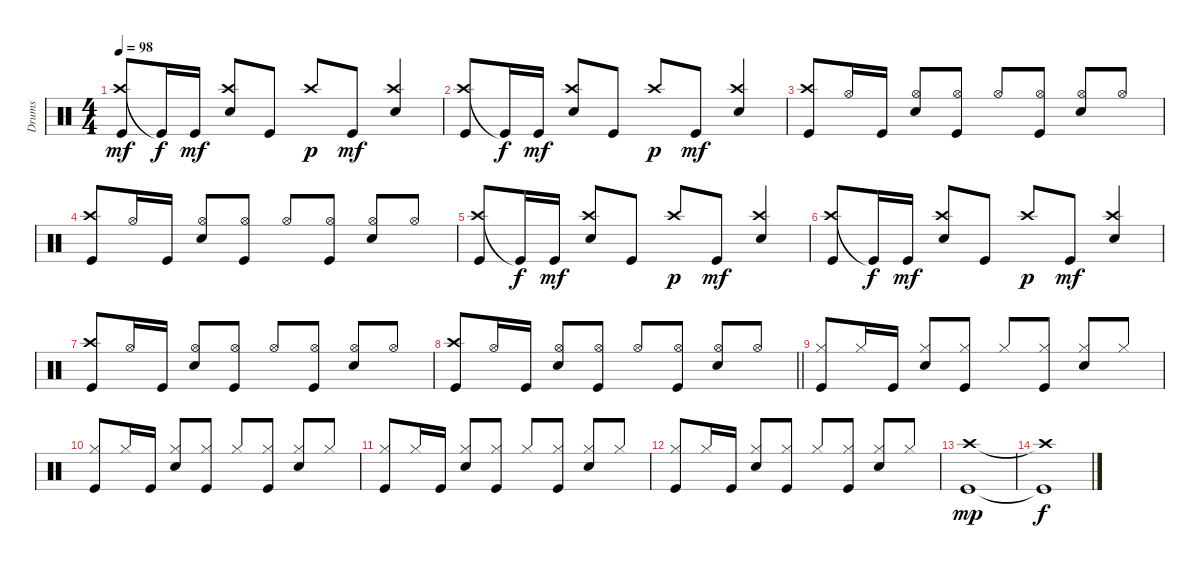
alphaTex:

\track ("Drums" "Drums") {instrument percussion}
\staff {score}
\articulation defaults
\ts (4 4)
\tempo 98
\clef neutral
\ks c
("Crash high (hit)" "Kick (hit)").8{dy mf beam Up} "Kick (hit)"{t}.16{dy f beam Up} "Kick (hit)".16{dy mf beam Up} ("Crash high (hit)" "Snare (hit) 2").8{beam Up} "Kick (hit)".8{beam Up} "Crash high (hit)".8{dy p beam Up} "Kick (hit)".8{dy mf beam Up} ("Crash high (hit)" "Snare (hit) 2").4{beam Up} |
("Crash high (hit)" "Kick (hit)").8{beam Up} "Kick (hit)"{t}.16{dy f beam Up} "Kick (hit)".16{dy mf beam Up} ("Crash high (hit)" "Snare (hit) 2").8{beam Up} "Kick (hit)".8{beam Up} "Crash high (hit)".8{dy p beam Up} "Kick (hit)".8{dy mf beam Up} ("Crash high (hit)" "Snare (hit) 2").4{beam Up} |
("Crash high (hit)" "Kick (hit)").8{beam Up} "Hi-Hat (open)".16{beam Up} "Kick (hit)".16{beam Up} ("Hi-Hat (open)" "Snare (hit) 2").8{beam Up} ("Hi-Hat (open)" "Kick (hit)").8{beam Up} "Hi-Hat (open)".8{beam Up} ("Hi-Hat (open)" "Kick (hit)").8{beam Up} ("Hi-Hat (open)" "Snare (hit) 2").8{beam Up} "Hi-Hat (open)".8{beam Up} |
("Crash high (hit)" "Kick (hit)").8{beam Up} "Hi-Hat (open)".16{beam Up} "Kick (hit)".16{beam Up} ("Hi-Hat (open)" "Snare (hit) 2").8{beam Up} ("Hi-Hat (open)" "Kick (hit)").8{beam Up} "Hi-Hat (open)".8{beam Up} ("Hi-Hat (open)" "Kick (hit)").8{beam Up} ("Hi-Hat (open)" "Snare (hit) 2").8{beam Up} "Hi-Hat (open)".8{beam Up} |
("Crash high (hit)" "Kick (hit)").8{beam Up} "Kick (hit)"{t}.16{dy f beam Up} "Kick (hit)".16{dy mf beam Up} ("Crash high (hit)" "Snare (hit) 2").8{beam Up} "Kick (hit)".8{beam Up} "Crash high (hit)".8{dy p beam Up} "Kick (hit)".8{dy mf beam Up} ("Crash high (hit)" "Snare (hit) 2").4{beam Up} |
("Crash high (hit)" "Kick (hit)").8{beam Up} "Kick (hit)"{t}.16{dy f beam Up} "Kick (hit)".16{dy mf beam Up} ("Crash high (hit)" "Snare (hit) 2").8{beam Up} "Kick (hit)".8{beam Up} "Crash high (hit)".8{dy p beam Up} "Kick (hit)".8{dy mf beam Up} ("Crash high (hit)" "Snare (hit) 2").4{beam Up} |
("Crash high (hit)" "Kick (hit)").8{beam Up} "Hi-Hat (open)".16{beam Up} "Kick (hit)".16{beam Up} ("Hi-Hat (open)" "Snare (hit) 2").8{beam Up} ("Hi-Hat (open)" "Kick (hit)").8{beam Up} "Hi-Hat (open)".8{beam Up} ("Hi-Hat (open)" "Kick (hit)").8{beam Up} ("Hi-Hat (open)" "Snare (hit) 2").8{beam Up} "Hi-Hat (open)".8{beam Up} |
\barLineRight lightlight
("Crash high (hit)" "Kick (hit)").8{beam Up} "Hi-Hat (open)".16{beam Up} "Kick (hit)".16{beam Up} ("Hi-Hat (open)" "Snare (hit) 2").8{beam Up} ("Hi-Hat (open)" "Kick (hit)").8{beam Up} "Hi-Hat (open)".8{beam Up} ("Hi-Hat (open)" "Kick (hit)").8{beam Up} ("Hi-Hat (open)" "Snare (hit) 2").8{beam Up} "Hi-Hat (open)".8{beam Up} |
("Hi-Hat (closed)" "Kick (hit)").8{beam Up} "Hi-Hat (closed)".16{beam Up} "Kick (hit)".16{beam Up} ("Hi-Hat (closed)" "Snare (hit) 2").8{beam Up} ("Hi-Hat (closed)" "Kick (hit)").8{beam Up} "Hi-Hat (closed)".8{beam Up} ("Hi-Hat (closed)" "Kick (hit)").8{beam Up} ("Hi-Hat (closed)" "Snare (hit) 2").8{beam Up} "Hi-Hat (closed)".8{beam Up} |
("Hi-Hat (closed)" "Kick (hit)").8{beam Up} "Hi-Hat (closed)".16{beam Up} "Kick (hit)".16{beam Up} ("Hi-Hat (closed)" "Snare (hit) 2").8{beam Up} ("Hi-Hat (closed)" "Kick (hit)").8{beam Up} "Hi-Hat (closed)".8{beam Up} ("Hi-Hat (closed)" "Kick (hit)").8{beam Up} ("Hi-Hat (closed)" "Snare (hit) 2").8{beam Up} "Hi-Hat (closed)".8{beam Up} |
("Hi-Hat (closed)" "Kick (hit)").8{beam Up} "Hi-Hat (closed)".16{beam Up} "Kick (hit)".16{beam Up} ("Hi-Hat (closed)" "Snare (hit) 2").8{beam Up} ("Hi-Hat (closed)" "Kick (hit)").8{beam Up} "Hi-Hat (closed)".8{beam Up} ("Hi-Hat (closed)" "Kick (hit)").8{beam Up} ("Hi-Hat (closed)" "Snare (hit) 2").8{beam Up} "Hi-Hat (closed)".8{beam Up} |
("Hi-Hat (closed)" "Kick (hit)").8{beam Up} "Hi-Hat (closed)".16{beam Up} "Kick (hit)".16{beam Up} ("Hi-Hat (closed)" "Snare (hit) 2").8{beam Up} ("Hi-Hat (closed)" "Kick (hit)").8{beam Up} "Hi-Hat (closed)".8{beam Up} ("Hi-Hat (closed)" "Kick (hit)").8{beam Up} ("Hi-Hat (closed)" "Snare (hit) 2").8{beam Up} "Hi-Hat (closed)".8{beam Up} |
("Crash high (hit)" "Kick (hit)").1{dy mp beam Up} |
("Crash high (hit)"{t} "Kick (hit)"{t}).1{dy f beam Up}
